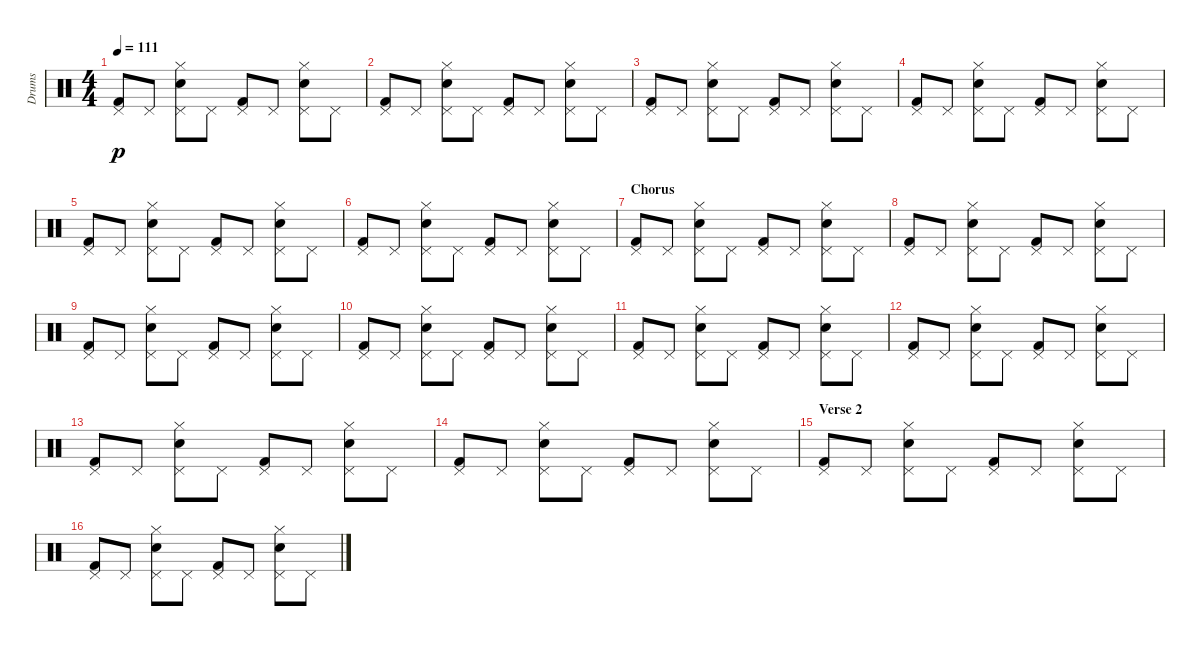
\track ("Drums" "Drums") {instrument percussion}
\staff {score}
\articulation defaults
\ts (4 4)
\tempo 111
\clef neutral
\ks c
("Pedal Hi-Hat (hit)" "Kick (hit) 2").8{dy p} "Pedal Hi-Hat (hit)".8 ("Pedal Hi-Hat (hit)" "Hand Clap (hit)" "Hi-Hat (closed)").8 "Pedal Hi-Hat (hit)".8 ("Pedal Hi-Hat (hit)" "Kick (hit) 2").8 "Pedal Hi-Hat (hit)".8 ("Pedal Hi-Hat (hit)" "Hand Clap (hit)" "Hi-Hat (closed)").8 "Pedal Hi-Hat (hit)".8 |
("Pedal Hi-Hat (hit)" "Kick (hit) 2").8 "Pedal Hi-Hat (hit)".8 ("Pedal Hi-Hat (hit)" "Hand Clap (hit)" "Hi-Hat (closed)").8 "Pedal Hi-Hat (hit)".8 ("Pedal Hi-Hat (hit)" "Kick (hit) 2").8 "Pedal Hi-Hat (hit)".8 ("Pedal Hi-Hat (hit)" "Hand Clap (hit)" "Hi-Hat (closed)").8 "Pedal Hi-Hat (hit)".8 |
("Pedal Hi-Hat (hit)" "Kick (hit) 2").8 "Pedal Hi-Hat (hit)".8 ("Pedal Hi-Hat (hit)" "Hand Clap (hit)" "Hi-Hat (closed)").8 "Pedal Hi-Hat (hit)".8 ("Pedal Hi-Hat (hit)" "Kick (hit) 2").8 "Pedal Hi-Hat (hit)".8 ("Pedal Hi-Hat (hit)" "Hand Clap (hit)" "Hi-Hat (closed)").8 "Pedal Hi-Hat (hit)".8 |
("Pedal Hi-Hat (hit)" "Kick (hit) 2").8 "Pedal Hi-Hat (hit)".8 ("Pedal Hi-Hat (hit)" "Hand Clap (hit)" "Hi-Hat (closed)").8 "Pedal Hi-Hat (hit)".8 ("Pedal Hi-Hat (hit)" "Kick (hit) 2").8 "Pedal Hi-Hat (hit)".8 ("Pedal Hi-Hat (hit)" "Hand Clap (hit)" "Hi-Hat (closed)").8 "Pedal Hi-Hat (hit)".8 |
("Pedal Hi-Hat (hit)" "Kick (hit) 2").8 "Pedal Hi-Hat (hit)".8 ("Pedal Hi-Hat (hit)" "Hand Clap (hit)" "Hi-Hat (closed)").8 "Pedal Hi-Hat (hit)".8 ("Pedal Hi-Hat (hit)" "Kick (hit) 2").8 "Pedal Hi-Hat (hit)".8 ("Pedal Hi-Hat (hit)" "Hand Clap (hit)" "Hi-Hat (closed)").8 "Pedal Hi-Hat (hit)".8 |
("Pedal Hi-Hat (hit)" "Kick (hit) 2").8 "Pedal Hi-Hat (hit)".8 ("Pedal Hi-Hat (hit)" "Hand Clap (hit)" "Hi-Hat (closed)").8 "Pedal Hi-Hat (hit)".8 ("Pedal Hi-Hat (hit)" "Kick (hit) 2").8 "Pedal Hi-Hat (hit)".8 ("Pedal Hi-Hat (hit)" "Hand Clap (hit)" "Hi-Hat (closed)").8 "Pedal Hi-Hat (hit)".8 |
\section ("" "Chorus")
("Pedal Hi-Hat (hit)" "Kick (hit) 2").8 "Pedal Hi-Hat (hit)".8 ("Pedal Hi-Hat (hit)" "Hand Clap (hit)" "Hi-Hat (closed)").8 "Pedal Hi-Hat (hit)".8 ("Pedal Hi-Hat (hit)" "Kick (hit) 2").8 "Pedal Hi-Hat (hit)".8 ("Pedal Hi-Hat (hit)" "Hand Clap (hit)" "Hi-Hat (closed)").8 "Pedal Hi-Hat (hit)".8 |
("Pedal Hi-Hat (hit)" "Kick (hit) 2").8 "Pedal Hi-Hat (hit)".8 ("Pedal Hi-Hat (hit)" "Hand Clap (hit)" "Hi-Hat (closed)").8 "Pedal Hi-Hat (hit)".8 ("Pedal Hi-Hat (hit)" "Kick (hit) 2").8 "Pedal Hi-Hat (hit)".8 ("Pedal Hi-Hat (hit)" "Hand Clap (hit)" "Hi-Hat (closed)").8 "Pedal Hi-Hat (hit)".8 |
("Pedal Hi-Hat (hit)" "Kick (hit) 2").8 "Pedal Hi-Hat (hit)".8 ("Pedal Hi-Hat (hit)" "Hand Clap (hit)" "Hi-Hat (closed)").8 "Pedal Hi-Hat (hit)".8 ("Pedal Hi-Hat (hit)" "Kick (hit) 2").8 "Pedal Hi-Hat (hit)".8 ("Pedal Hi-Hat (hit)" "Hand Clap (hit)" "Hi-Hat (closed)").8 "Pedal Hi-Hat (hit)".8 |
("Pedal Hi-Hat (hit)" "Kick (hit) 2").8 "Pedal Hi-Hat (hit)".8 ("Pedal Hi-Hat (hit)" "Hand Clap (hit)" "Hi-Hat (closed)").8 "Pedal Hi-Hat (hit)".8 ("Pedal Hi-Hat (hit)" "Kick (hit) 2").8 "Pedal Hi-Hat (hit)".8 ("Pedal Hi-Hat (hit)" "Hand Clap (hit)" "Hi-Hat (closed)").8 "Pedal Hi-Hat (hit)".8 |
("Pedal Hi-Hat (hit)" "Kick (hit) 2").8 "Pedal Hi-Hat (hit)".8 ("Pedal Hi-Hat (hit)" "Hand Clap (hit)" "Hi-Hat (closed)").8 "Pedal Hi-Hat (hit)".8 ("Pedal Hi-Hat (hit)" "Kick (hit) 2").8 "Pedal Hi-Hat (hit)".8 ("Pedal Hi-Hat (hit)" "Hand Clap (hit)" "Hi-Hat (closed)").8 "Pedal Hi-Hat (hit)".8 |
("Pedal Hi-Hat (hit)" "Kick (hit) 2").8 "Pedal Hi-Hat (hit)".8 ("Pedal Hi-Hat (hit)" "Hand Clap (hit)" "Hi-Hat (closed)").8 "Pedal Hi-Hat (hit)".8 ("Pedal Hi-Hat (hit)" "Kick (hit) 2").8 "Pedal Hi-Hat (hit)".8 ("Pedal Hi-Hat (hit)" "Hand Clap (hit)" "Hi-Hat (closed)").8 "Pedal Hi-Hat (hit)".8 |
("Pedal Hi-Hat (hit)" "Kick (hit) 2").8 "Pedal Hi-Hat (hit)".8 ("Pedal Hi-Hat (hit)" "Hand Clap (hit)" "Hi-Hat (closed)").8 "Pedal Hi-Hat (hit)".8 ("Pedal Hi-Hat (hit)" "Kick (hit) 2").8 "Pedal Hi-Hat (hit)".8 ("Pedal Hi-Hat (hit)" "Hand Clap (hit)" "Hi-Hat (closed)").8 "Pedal Hi-Hat (hit)".8 |
("Pedal Hi-Hat (hit)" "Kick (hit) 2").8 "Pedal Hi-Hat (hit)".8 ("Pedal Hi-Hat (hit)" "Hand Clap (hit)" "Hi-Hat (closed)").8 "Pedal Hi-Hat (hit)".8 ("Pedal Hi-Hat (hit)" "Kick (hit) 2").8 "Pedal Hi-Hat (hit)".8 ("Pedal Hi-Hat (hit)" "Hand Clap (hit)" "Hi-Hat (closed)").8 "Pedal Hi-Hat (hit)".8 |
\section ("" "Verse 2")
("Pedal Hi-Hat (hit)" "Kick (hit) 2").8 "Pedal Hi-Hat (hit)".8 ("Pedal Hi-Hat (hit)" "Hand Clap (hit)" "Hi-Hat (closed)").8 "Pedal Hi-Hat (hit)".8 ("Pedal Hi-Hat (hit)" "Kick (hit) 2").8 "Pedal Hi-Hat (hit)".8 ("Pedal Hi-Hat (hit)" "Hand Clap (hit)" "Hi-Hat (closed)").8 "Pedal Hi-Hat (hit)".8 |
("Pedal Hi-Hat (hit)" "Kick (hit) 2").8 "Pedal Hi-Hat (hit)".8 ("Pedal Hi-Hat (hit)" "Hand Clap (hit)" "Hi-Hat (closed)").8 "Pedal Hi-Hat (hit)".8 ("Pedal Hi-Hat (hit)" "Kick (hit) 2").8 "Pedal Hi-Hat (hit)".8 ("Pedal Hi-Hat (hit)" "Hand Clap (hit)" "Hi-Hat (closed)").8 "Pedal Hi-Hat (hit)".8
